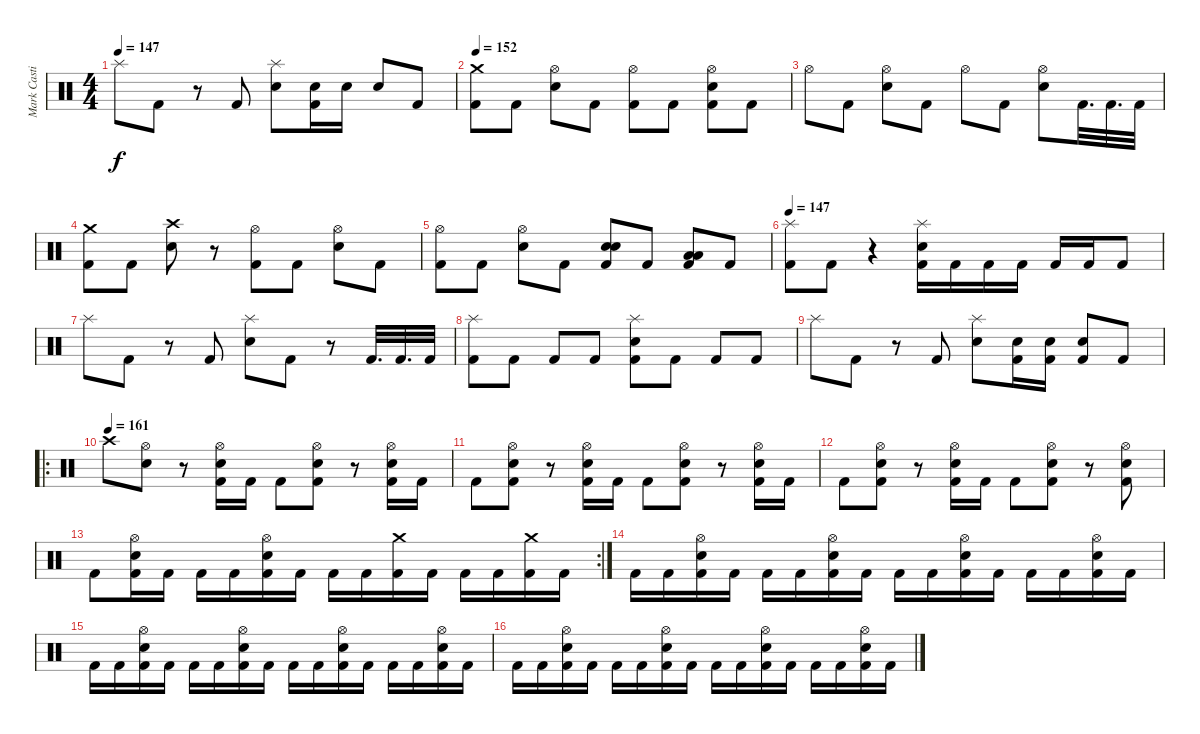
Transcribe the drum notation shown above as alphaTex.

\track ("Mark Castillo" "Mark Casti") {instrument percussion}
\staff {score}
\articulation defaults
\ts (4 4)
\tempo 147
\clef neutral
\ks c "Splash (hit)".8{dy f} "Kick (hit) 2".8
r.8 "Kick (hit) 2".8 ("Splash (hit)" "Snare (hit) 2").8 ("Snare (hit) 2" "Kick (hit) 2").16 "Snare (hit) 2".16 "Snare (hit) 2".8 "Kick (hit) 2".8 |
\tempo 152
("Crash medium (hit)" "Kick (hit) 2").8 "Kick (hit) 2".8 ("Hi-Hat (open)" "Snare (hit) 2").8 "Kick (hit) 2".8 ("Hi-Hat (open)" "Kick (hit) 2").8 "Kick (hit) 2".8 ("Hi-Hat (open)" "Snare (hit) 2" "Kick (hit) 2").8 "Kick (hit) 2".8 |
"Hi-Hat (open)".8 "Kick (hit) 2".8 ("Hi-Hat (open)" "Snare (hit) 2").8 "Kick (hit) 2".8 "Hi-Hat (open)".8 "Kick (hit) 2".8 ("Hi-Hat (open)" "Snare (hit) 2").8 "Kick (hit) 2".32{d} "Kick (hit) 2".32{d} "Kick (hit) 2".32 |
("Crash medium (hit)" "Kick (hit) 2").8 "Kick (hit) 2".8 ("Crash high (hit)" "Snare (hit) 2").8 r.8 ("Hi-Hat (open)" "Kick (hit) 2").8 "Kick (hit) 2".8 ("Hi-Hat (open)" "Snare (hit) 2").8 "Kick (hit) 2".8 |
("Hi-Hat (open)" "Kick (hit) 2").8 "Kick (hit) 2".8 ("Hi-Hat (open)" "Snare (hit) 2").8 "Kick (hit) 2".8 ("Snare (hit) 2" "Snare (hit) 2" "Kick (hit) 2").8 "Kick (hit) 2".8 ("Low Floor Tom (hit)" "Low Floor Tom (hit)" "Kick (hit) 2").8 "Kick (hit) 2".8 |
\tempo 147
("Splash (hit)" "Kick (hit) 2").8 "Kick (hit) 2".8 r.4 ("Splash (hit)" "Snare (hit) 2" "Kick (hit) 2").16 "Kick (hit) 2".16 "Kick (hit) 2".16 "Kick (hit) 2".16 "Kick (hit) 2".16 "Kick (hit) 2".16 "Kick (hit) 2".8 |
"Splash (hit)".8 "Kick (hit) 2".8 r.8 "Kick (hit) 2".8 ("Splash (hit)" "Snare (hit) 2").8 "Kick (hit) 2".8 r.8 "Kick (hit) 2".32{d} "Kick (hit) 2".32{d} "Kick (hit) 2".32 |
("Splash (hit)" "Kick (hit) 2").8 "Kick (hit) 2".8 "Kick (hit) 2".8 "Kick (hit) 2".8 ("Splash (hit)" "Snare (hit) 2" "Kick (hit) 2").8 "Kick (hit) 2".8 "Kick (hit) 2".8 "Kick (hit) 2".8 |
"Splash (hit)".8 "Kick (hit) 2".8 r.8 "Kick (hit) 2".8 ("Splash (hit)" "Snare (hit) 2").8 ("Snare (hit) 2" "Kick (hit) 2").16 ("Snare (hit) 2" "Kick (hit) 2").16 ("Snare (hit) 2" "Kick (hit) 2").8 "Kick (hit) 2".8 |
\ro
\tempo (161)
"Crash high (hit)".8 ("Hi-Hat (open)" "Snare (hit) 2").8 r.8 ("Hi-Hat (open)" "Snare (hit) 2" "Kick (hit) 2").16 "Kick (hit) 2".16 "Kick (hit) 2".8 ("Hi-Hat (open)" "Snare (hit) 2" "Kick (hit) 2").8 r.8 ("Hi-Hat (open)" "Snare (hit) 2" "Kick (hit) 2").16 "Kick (hit) 2".16 |
"Kick (hit) 2".8 ("Hi-Hat (open)" "Snare (hit) 2" "Kick (hit) 2").8 r.8 ("Hi-Hat (open)" "Snare (hit) 2" "Kick (hit) 2").16 "Kick (hit) 2".16 "Kick (hit) 2".8 ("Hi-Hat (open)" "Snare (hit) 2" "Kick (hit) 2").8 r.8 ("Hi-Hat (open)" "Snare (hit) 2" "Kick (hit) 2").16 "Kick (hit) 2".16 |
"Kick (hit) 2".8 ("Hi-Hat (open)" "Snare (hit) 2" "Kick (hit) 2").8 r.8 ("Hi-Hat (open)" "Snare (hit) 2" "Kick (hit) 2").16 "Kick (hit) 2".16 "Kick (hit) 2".8 ("Hi-Hat (open)" "Snare (hit) 2" "Kick (hit) 2").8 r.8 ("Hi-Hat (open)" "Snare (hit) 2" "Kick (hit) 2").8 |
\rc 2 "Kick (hit) 2".8
("Hi-Hat (open)" "Snare (hit) 2" "Kick (hit) 2").16 "Kick (hit) 2".16 "Kick (hit) 2".16 "Kick (hit) 2".16 ("Hi-Hat (open)" "Snare (hit) 2" "Kick (hit) 2").16 "Kick (hit) 2".16 "Kick (hit) 2".16 "Kick (hit) 2".16 ("Crash medium (hit)" "Kick (hit) 2").16 "Kick (hit) 2".16 "Kick (hit) 2".16 "Kick (hit) 2".16 ("Crash medium (hit)" "Kick (hit) 2").16 "Kick (hit) 2".16 |
"Kick (hit) 2".16 "Kick (hit) 2".16 ("Hi-Hat (open)" "Snare (hit) 2" "Kick (hit) 2").16 "Kick (hit) 2".16 "Kick (hit) 2".16 "Kick (hit) 2".16 ("Hi-Hat (open)" "Snare (hit) 2" "Kick (hit) 2").16 "Kick (hit) 2".16 "Kick (hit) 2".16 "Kick (hit) 2".16 ("Hi-Hat (open)" "Snare (hit) 2" "Kick (hit) 2").16 "Kick (hit) 2".16 "Kick (hit) 2".16 "Kick (hit) 2".16 ("Hi-Hat (open)" "Snare (hit) 2" "Kick (hit) 2").16 "Kick (hit) 2".16 |
"Kick (hit) 2".16 "Kick (hit) 2".16 ("Hi-Hat (open)" "Snare (hit) 2" "Kick (hit) 2").16 "Kick (hit) 2".16 "Kick (hit) 2".16 "Kick (hit) 2".16 ("Hi-Hat (open)" "Snare (hit) 2" "Kick (hit) 2").16 "Kick (hit) 2".16 "Kick (hit) 2".16 "Kick (hit) 2".16 ("Hi-Hat (open)" "Snare (hit) 2" "Kick (hit) 2").16 "Kick (hit) 2".16 "Kick (hit) 2".16 "Kick (hit) 2".16 ("Hi-Hat (open)" "Snare (hit) 2" "Kick (hit) 2").16 "Kick (hit) 2".16 |
"Kick (hit) 2".16 "Kick (hit) 2".16 ("Hi-Hat (open)" "Snare (hit) 2" "Kick (hit) 2").16 "Kick (hit) 2".16 "Kick (hit) 2".16 "Kick (hit) 2".16 ("Hi-Hat (open)" "Snare (hit) 2" "Kick (hit) 2").16 "Kick (hit) 2".16 "Kick (hit) 2".16 "Kick (hit) 2".16 ("Hi-Hat (open)" "Snare (hit) 2" "Kick (hit) 2").16 "Kick (hit) 2".16 "Kick (hit) 2".16 "Kick (hit) 2".16 ("Hi-Hat (open)" "Snare (hit) 2" "Kick (hit) 2").16 "Kick (hit) 2".16
